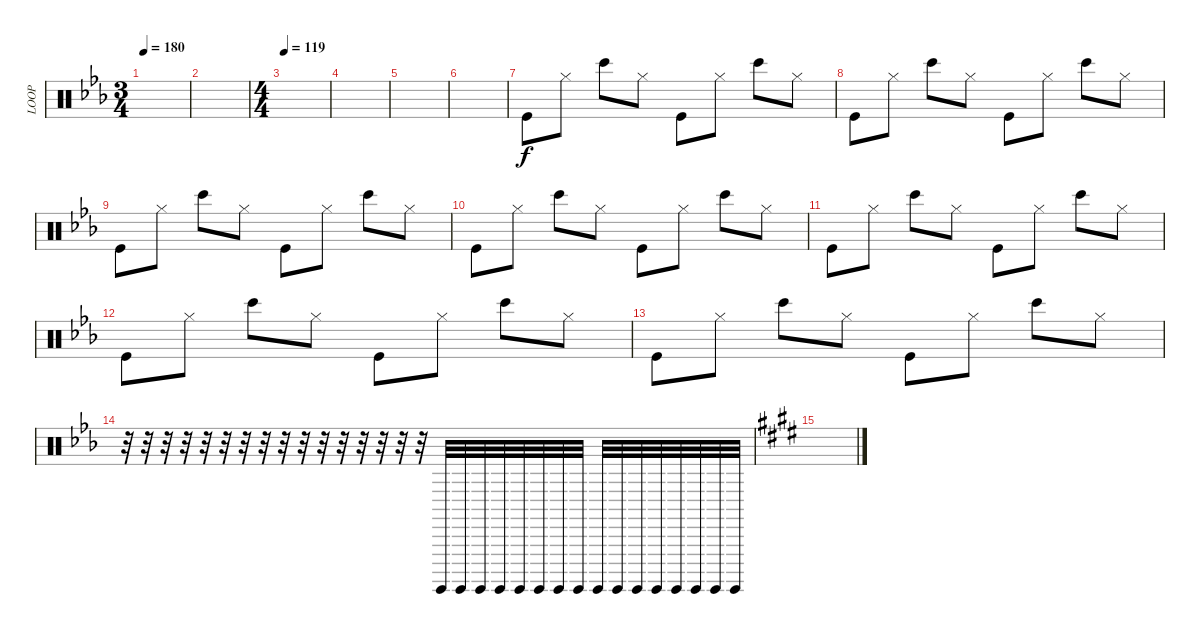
\track ("LOOP" "LOOP") {instrument percussion}
\staff {score}
\articulation defaults
\ts (3 4)
\tempo 180
\clef neutral
\ks eb
|
|
\ts (4 4)
\tempo 119
|
|
|
|
"Kick (hit)".8{volume 11} "Hi-Hat (closed)".8 "Bongo High (hit)".8 "Hi-Hat (closed)".8 "Kick (hit)".8 "Hi-Hat (closed)".8 "Bongo High (hit)".8 "Hi-Hat (closed)".8 |
"Kick (hit)".8 "Hi-Hat (closed)".8 "Bongo High (hit)".8 "Hi-Hat (closed)".8 "Kick (hit)".8 "Hi-Hat (closed)".8 "Bongo High (hit)".8 "Hi-Hat (closed)".8 |
"Kick (hit)".8 "Hi-Hat (closed)".8 "Bongo High (hit)".8 "Hi-Hat (closed)".8 "Kick (hit)".8 "Hi-Hat (closed)".8 "Bongo High (hit)".8 "Hi-Hat (closed)".8 |
"Kick (hit)".8 "Hi-Hat (closed)".8 "Bongo High (hit)".8 "Hi-Hat (closed)".8 "Kick (hit)".8 "Hi-Hat (closed)".8 "Bongo High (hit)".8 "Hi-Hat (closed)".8 |
"Kick (hit)".8 "Hi-Hat (closed)".8 "Bongo High (hit)".8 "Hi-Hat (closed)".8 "Kick (hit)".8 "Hi-Hat (closed)".8 "Bongo High (hit)".8 "Hi-Hat (closed)".8 |
"Kick (hit)".8 "Hi-Hat (closed)".8 "Bongo High (hit)".8 "Hi-Hat (closed)".8 "Kick (hit)".8 "Hi-Hat (closed)".8 "Bongo High (hit)".8 "Hi-Hat (closed)".8 |
"Kick (hit)".8 "Hi-Hat (closed)".8 "Bongo High (hit)".8 "Hi-Hat (closed)".8 "Kick (hit)".8 "Hi-Hat (closed)".8 "Bongo High (hit)".8 "Hi-Hat (closed)".8 |
r.32 r.32 r.32 r.32 r.32 r.32 r.32 r.32 r.32 r.32 r.32 r.32 r.32 r.32 r.32 r.32 "Surdo (hit)".32{volume 11} "Surdo (hit)".32 "Surdo (hit)".32 "Surdo (hit)".32 "Surdo (hit)".32 "Surdo (hit)".32 "Surdo (hit)".32 "Surdo (hit)".32 "Surdo (hit)".32 "Surdo (hit)".32 "Surdo (hit)".32 "Surdo (hit)".32 "Surdo (hit)".32 "Surdo (hit)".32 "Surdo (hit)".32 "Surdo (hit)".32 |
\ks e
